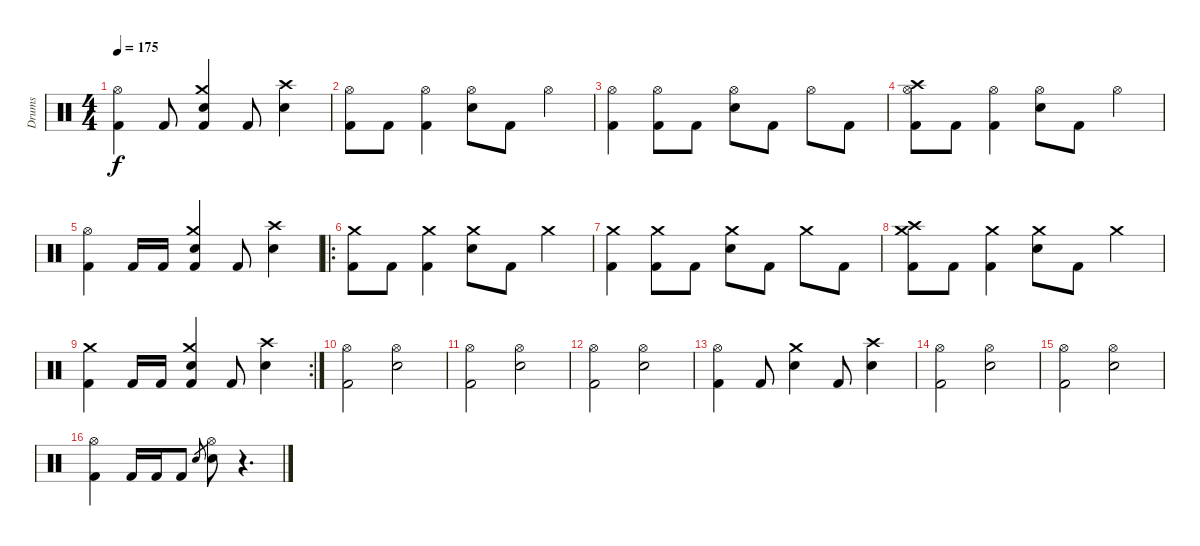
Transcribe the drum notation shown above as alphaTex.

\track ("Drums" "Drums") {instrument percussion}
\staff {score}
\articulation defaults
\ts (4 4)
\tempo 175
\clef neutral
\ks c
("Hi-Hat (open)" "Kick (hit) 2").4{dy f} "Kick (hit) 2".8 ("Crash medium (hit)" "Snare (hit) 2" "Kick (hit) 2").4 "Kick (hit) 2".8 ("Crash high (hit)" "Snare (hit) 2").4 |
("Hi-Hat (open)" "Kick (hit) 2").8 "Kick (hit) 2".8 ("Hi-Hat (open)" "Kick (hit) 2").4 ("Hi-Hat (open)" "Snare (hit) 2").8 "Kick (hit) 2".8 "Hi-Hat (open)".4 |
("Hi-Hat (open)" "Kick (hit) 2").4 ("Hi-Hat (open)" "Kick (hit) 2").8 "Kick (hit) 2".8 ("Hi-Hat (open)" "Snare (hit) 2").8 "Kick (hit) 2".8 "Hi-Hat (open)".8 "Kick (hit) 2".8 |
("Hi-Hat (open)" "Crash high (hit)" "Kick (hit) 2").8 "Kick (hit) 2".8 ("Hi-Hat (open)" "Kick (hit) 2").4 ("Hi-Hat (open)" "Snare (hit) 2").8 "Kick (hit) 2".8 "Hi-Hat (open)".4 |
("Hi-Hat (open)" "Kick (hit) 2").4 "Kick (hit) 2".16 "Kick (hit) 2".16 ("Crash medium (hit)" "Snare (hit) 2" "Kick (hit) 2").4 "Kick (hit) 2".8 ("Crash high (hit)" "Snare (hit) 2").4 |
\ro
("Crash medium (hit)" "Kick (hit) 2").8 "Kick (hit) 2".8 ("Crash medium (hit)" "Kick (hit) 2").4 ("Crash medium (hit)" "Snare (hit) 2").8 "Kick (hit) 2".8 "Crash medium (hit)".4 |
("Crash medium (hit)" "Kick (hit) 2").4 ("Crash medium (hit)" "Kick (hit) 2").8 "Kick (hit) 2".8 ("Crash medium (hit)" "Snare (hit) 2").8 "Kick (hit) 2".8 "Crash medium (hit)".8 "Kick (hit) 2".8 |
("Crash medium (hit)" "Crash high (hit)" "Kick (hit) 2").8 "Kick (hit) 2".8 ("Crash medium (hit)" "Kick (hit) 2").4 ("Crash medium (hit)" "Snare (hit) 2").8 "Kick (hit) 2".8 "Crash medium (hit)".4 |
\rc 2
("Crash medium (hit)" "Kick (hit) 2").4 "Kick (hit) 2".16 "Kick (hit) 2".16 ("Crash medium (hit)" "Snare (hit) 2" "Kick (hit) 2").4 "Kick (hit) 2".8 ("Crash high (hit)" "Snare (hit) 2").4 |
("Hi-Hat (open)" "Kick (hit) 2").2 ("Hi-Hat (open)" "Snare (hit) 2").2 |
("Hi-Hat (open)" "Kick (hit) 2").2 ("Hi-Hat (open)" "Snare (hit) 2").2 |
("Hi-Hat (open)" "Kick (hit) 2").2 ("Hi-Hat (open)" "Snare (hit) 2").2 |
("Hi-Hat (open)" "Kick (hit) 2").4 "Kick (hit) 2".8 ("Crash medium (hit)" "Snare (hit) 2").4 "Kick (hit) 2".8 ("Crash high (hit)" "Snare (hit) 2").4 |
("Hi-Hat (open)" "Kick (hit) 2").2 ("Hi-Hat (open)" "Snare (hit) 2").2 |
("Hi-Hat (open)" "Kick (hit) 2").2 ("Hi-Hat (open)" "Snare (hit) 2").2 |
("Hi-Hat (open)" "Kick (hit) 2").4 "Kick (hit) 2".16 "Kick (hit) 2".16 "Kick (hit) 2".8 "Snare (hit) 2".8{gr} ("Hi-Hat (open)" "Snare (hit) 2").8 r.4{d volume 0}
